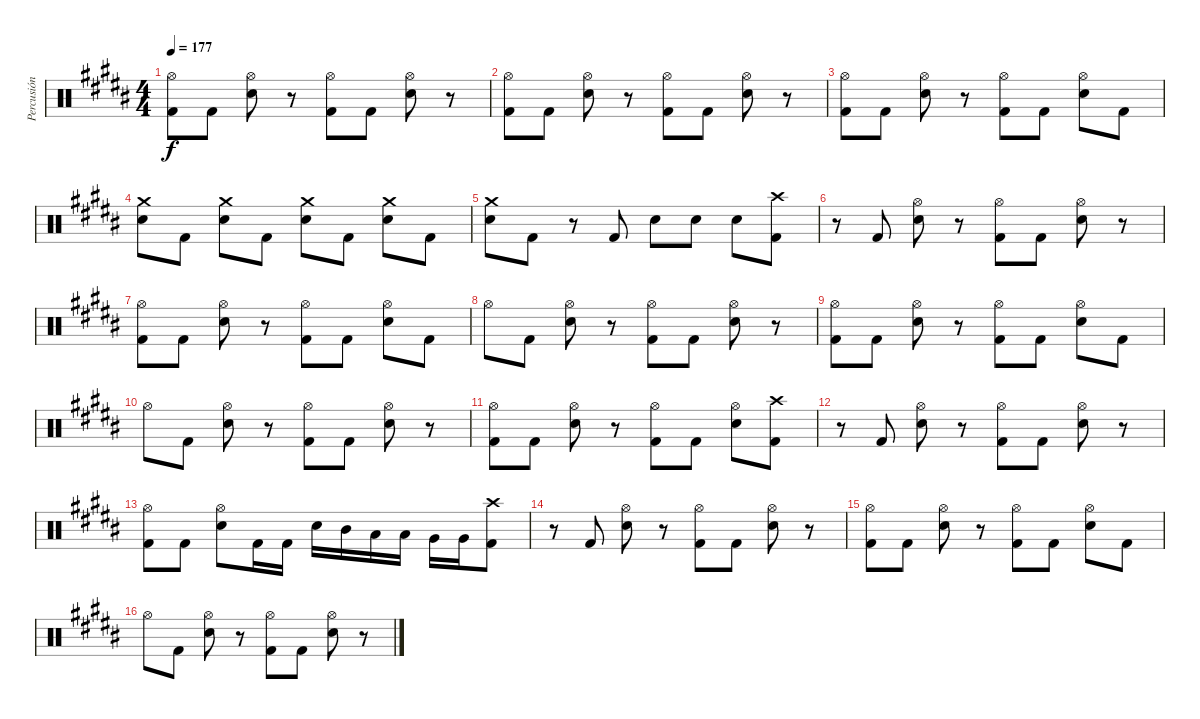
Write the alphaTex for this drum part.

\track ("Percusión" "Percusión") {instrument percussion}
\staff {score}
\articulation defaults
\ts (4 4)
\tempo 177
\clef neutral
\ks g#minor
("Kick (hit) 2" "Hi-Hat (open)").8{dy f} "Kick (hit) 2".8 ("Snare (hit) 2" "Hi-Hat (open)").8 r.8 ("Kick (hit) 2" "Hi-Hat (open)").8 "Kick (hit) 2".8 ("Snare (hit) 2" "Hi-Hat (open)").8 r.8 |
("Kick (hit) 2" "Hi-Hat (open)").8 "Kick (hit) 2".8 ("Snare (hit) 2" "Hi-Hat (open)").8 r.8 ("Kick (hit) 2" "Hi-Hat (open)").8 "Kick (hit) 2".8 ("Snare (hit) 2" "Hi-Hat (open)").8 r.8 |
("Kick (hit) 2" "Hi-Hat (open)").8 "Kick (hit) 2".8 ("Snare (hit) 2" "Hi-Hat (open)").8 r.8 ("Kick (hit) 2" "Hi-Hat (open)").8 "Kick (hit) 2".8 ("Snare (hit) 2" "Hi-Hat (open)").8 "Kick (hit) 2".8 |
("Snare (hit) 2" "Crash medium (hit)").8 "Kick (hit) 2".8 ("Snare (hit) 2" "Crash medium (hit)").8 "Kick (hit) 2".8 ("Snare (hit) 2" "Crash medium (hit)").8 "Kick (hit) 2".8 ("Snare (hit) 2" "Crash medium (hit)").8 "Kick (hit) 2".8 |
("Snare (hit) 2" "Crash medium (hit)").8 "Kick (hit) 2".8 r.8 "Kick (hit) 2".8 "Snare (hit) 2".8 "Snare (hit) 2".8 "Snare (hit) 2".8 ("Kick (hit) 2" "Crash high (hit)").8 |
r.8 "Kick (hit) 2".8 ("Snare (hit) 2" "Hi-Hat (open)").8 r.8 ("Kick (hit) 2" "Hi-Hat (open)").8 "Kick (hit) 2".8 ("Snare (hit) 2" "Hi-Hat (open)").8 r.8 |
("Kick (hit) 2" "Hi-Hat (open)").8 "Kick (hit) 2".8 ("Snare (hit) 2" "Hi-Hat (open)").8 r.8 ("Kick (hit) 2" "Hi-Hat (open)").8 "Kick (hit) 2".8 ("Snare (hit) 2" "Hi-Hat (open)").8 "Kick (hit) 2".8 |
"Hi-Hat (open)".8 "Kick (hit) 2".8 ("Snare (hit) 2" "Hi-Hat (open)").8 r.8 ("Kick (hit) 2" "Hi-Hat (open)").8 "Kick (hit) 2".8 ("Snare (hit) 2" "Hi-Hat (open)").8 r.8 |
("Kick (hit) 2" "Hi-Hat (open)").8 "Kick (hit) 2".8 ("Snare (hit) 2" "Hi-Hat (open)").8 r.8 ("Kick (hit) 2" "Hi-Hat (open)").8 "Kick (hit) 2".8 ("Snare (hit) 2" "Hi-Hat (open)").8 "Kick (hit) 2".8 |
"Hi-Hat (open)".8 "Kick (hit) 2".8 ("Snare (hit) 2" "Hi-Hat (open)").8 r.8 ("Kick (hit) 2" "Hi-Hat (open)").8 "Kick (hit) 2".8 ("Snare (hit) 2" "Hi-Hat (open)").8 r.8 |
("Kick (hit) 2" "Hi-Hat (open)").8 "Kick (hit) 2".8 ("Snare (hit) 2" "Hi-Hat (open)").8 r.8 ("Kick (hit) 2" "Hi-Hat (open)").8 "Kick (hit) 2".8 ("Snare (hit) 2" "Hi-Hat (open)").8 ("Kick (hit) 2" "Crash high (hit)").8 |
r.8 "Kick (hit) 2".8 ("Snare (hit) 2" "Hi-Hat (open)").8 r.8 ("Kick (hit) 2" "Hi-Hat (open)").8 "Kick (hit) 2".8 ("Snare (hit) 2" "Hi-Hat (open)").8 r.8 |
("Kick (hit) 2" "Hi-Hat (open)").8 "Kick (hit) 2".8 ("Snare (hit) 2" "Hi-Hat (open)").8 "Kick (hit) 2".16 "Kick (hit) 2".16 "Snare (hit) 2".16 "Mid Tom (hit)".16 "Low Tom (hit)".16 "Low Tom (hit)".16 "Very Low Tom (hit)".16 "Very Low Tom (hit)".16 ("Kick (hit) 2" "Crash high (hit)").8 |
r.8 "Kick (hit) 2".8 ("Snare (hit) 2" "Hi-Hat (open)").8 r.8 ("Kick (hit) 2" "Hi-Hat (open)").8 "Kick (hit) 2".8 ("Snare (hit) 2" "Hi-Hat (open)").8 r.8 |
("Kick (hit) 2" "Hi-Hat (open)").8 "Kick (hit) 2".8 ("Snare (hit) 2" "Hi-Hat (open)").8 r.8 ("Kick (hit) 2" "Hi-Hat (open)").8 "Kick (hit) 2".8 ("Snare (hit) 2" "Hi-Hat (open)").8 "Kick (hit) 2".8 |
"Hi-Hat (open)".8 "Kick (hit) 2".8 ("Snare (hit) 2" "Hi-Hat (open)").8 r.8 ("Kick (hit) 2" "Hi-Hat (open)").8 "Kick (hit) 2".8 ("Snare (hit) 2" "Hi-Hat (open)").8 r.8
